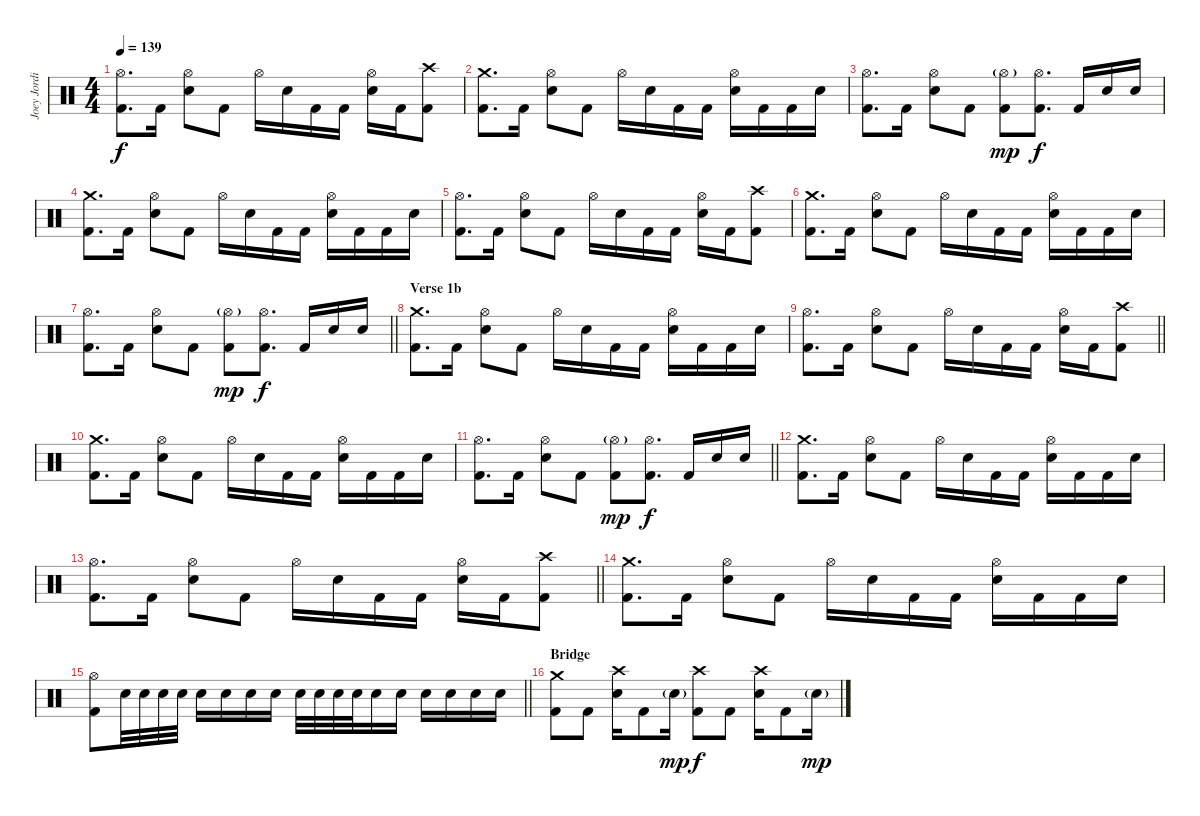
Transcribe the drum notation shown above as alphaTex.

\track ("Joey Jordison" "Joey Jordi") {instrument percussion}
\staff {score}
\articulation defaults
\ts (4 4)
\tempo 139
\clef neutral
\ks c
("Hi-Hat (open)" "Kick (hit) 2").8{d dy f} "Kick (hit) 2".16 ("Hi-Hat (open)" "Electric Snare (hit)").8 "Kick (hit) 2".8 "Hi-Hat (open)".16 "Electric Snare (hit)".16 "Kick (hit) 2".16 "Kick (hit) 2".16 ("Hi-Hat (open)" "Electric Snare (hit)").16 "Kick (hit) 2".16 ("Crash high (hit)" "Kick (hit) 2").8 |
("Crash medium (hit)" "Kick (hit) 2").8{d} "Kick (hit) 2".16 ("Hi-Hat (open)" "Electric Snare (hit)").8 "Kick (hit) 2".8 "Hi-Hat (open)".16 "Electric Snare (hit)".16 "Kick (hit) 2".16 "Kick (hit) 2".16 ("Hi-Hat (open)" "Electric Snare (hit)").16 "Kick (hit) 2".16 "Kick (hit) 2".16 "Electric Snare (hit)".16 |
("Hi-Hat (open)" "Kick (hit) 2").8{d} "Kick (hit) 2".16 ("Hi-Hat (open)" "Electric Snare (hit)").8 "Kick (hit) 2".8 ("Hi-Hat (open)"{g} "Kick (hit) 2").8{dy mp} ("Hi-Hat (open)" "Kick (hit) 2").8{d dy f} "Kick (hit) 2".16 "Electric Snare (hit)".16 "Electric Snare (hit)".16 |
("Crash medium (hit)" "Kick (hit) 2").8{d} "Kick (hit) 2".16 ("Hi-Hat (open)" "Electric Snare (hit)").8 "Kick (hit) 2".8 "Hi-Hat (open)".16 "Electric Snare (hit)".16 "Kick (hit) 2".16 "Kick (hit) 2".16 ("Hi-Hat (open)" "Electric Snare (hit)").16 "Kick (hit) 2".16 "Kick (hit) 2".16 "Electric Snare (hit)".16 |
("Hi-Hat (open)" "Kick (hit) 2").8{d} "Kick (hit) 2".16 ("Hi-Hat (open)" "Electric Snare (hit)").8 "Kick (hit) 2".8 "Hi-Hat (open)".16 "Electric Snare (hit)".16 "Kick (hit) 2".16 "Kick (hit) 2".16 ("Hi-Hat (open)" "Electric Snare (hit)").16 "Kick (hit) 2".16 ("Crash high (hit)" "Kick (hit) 2").8 |
("Crash medium (hit)" "Kick (hit) 2").8{d} "Kick (hit) 2".16 ("Hi-Hat (open)" "Electric Snare (hit)").8 "Kick (hit) 2".8 "Hi-Hat (open)".16 "Electric Snare (hit)".16 "Kick (hit) 2".16 "Kick (hit) 2".16 ("Hi-Hat (open)" "Electric Snare (hit)").16 "Kick (hit) 2".16 "Kick (hit) 2".16 "Electric Snare (hit)".16 |
\barLineRight lightlight
("Hi-Hat (open)" "Kick (hit) 2").8{d} "Kick (hit) 2".16 ("Hi-Hat (open)" "Electric Snare (hit)").8 "Kick (hit) 2".8 ("Hi-Hat (open)"{g} "Kick (hit) 2").8{dy mp} ("Hi-Hat (open)" "Kick (hit) 2").8{d dy f} "Kick (hit) 2".16 "Electric Snare (hit)".16 "Electric Snare (hit)".16 |
\section ("" "Verse 1b")
("Crash medium (hit)" "Kick (hit) 2").8{d} "Kick (hit) 2".16 ("Hi-Hat (open)" "Electric Snare (hit)").8 "Kick (hit) 2".8 "Hi-Hat (open)".16 "Electric Snare (hit)".16 "Kick (hit) 2".16 "Kick (hit) 2".16 ("Hi-Hat (open)" "Electric Snare (hit)").16 "Kick (hit) 2".16 "Kick (hit) 2".16 "Electric Snare (hit)".16 |
\barLineRight lightlight
("Hi-Hat (open)" "Kick (hit) 2").8{d} "Kick (hit) 2".16 ("Hi-Hat (open)" "Electric Snare (hit)").8 "Kick (hit) 2".8 "Hi-Hat (open)".16 "Electric Snare (hit)".16 "Kick (hit) 2".16 "Kick (hit) 2".16 ("Hi-Hat (open)" "Electric Snare (hit)").16 "Kick (hit) 2".16 ("Crash high (hit)" "Kick (hit) 2").8 |
("Crash medium (hit)" "Kick (hit) 2").8{d} "Kick (hit) 2".16 ("Hi-Hat (open)" "Electric Snare (hit)").8 "Kick (hit) 2".8 "Hi-Hat (open)".16 "Electric Snare (hit)".16 "Kick (hit) 2".16 "Kick (hit) 2".16 ("Hi-Hat (open)" "Electric Snare (hit)").16 "Kick (hit) 2".16 "Kick (hit) 2".16 "Electric Snare (hit)".16 |
\barLineRight lightlight
("Hi-Hat (open)" "Kick (hit) 2").8{d} "Kick (hit) 2".16 ("Hi-Hat (open)" "Electric Snare (hit)").8 "Kick (hit) 2".8 ("Hi-Hat (open)"{g} "Kick (hit) 2").8{dy mp} ("Hi-Hat (open)" "Kick (hit) 2").8{d dy f} "Kick (hit) 2".16 "Electric Snare (hit)".16 "Electric Snare (hit)".16 |
("Crash medium (hit)" "Kick (hit) 2").8{d} "Kick (hit) 2".16 ("Hi-Hat (open)" "Electric Snare (hit)").8 "Kick (hit) 2".8 "Hi-Hat (open)".16 "Electric Snare (hit)".16 "Kick (hit) 2".16 "Kick (hit) 2".16 ("Hi-Hat (open)" "Electric Snare (hit)").16 "Kick (hit) 2".16 "Kick (hit) 2".16 "Electric Snare (hit)".16 |
\barLineRight lightlight
("Hi-Hat (open)" "Kick (hit) 2").8{d} "Kick (hit) 2".16 ("Hi-Hat (open)" "Electric Snare (hit)").8 "Kick (hit) 2".8 "Hi-Hat (open)".16 "Electric Snare (hit)".16 "Kick (hit) 2".16 "Kick (hit) 2".16 ("Hi-Hat (open)" "Electric Snare (hit)").16 "Kick (hit) 2".16 ("Crash high (hit)" "Kick (hit) 2").8 |
("Crash medium (hit)" "Kick (hit) 2").8{d} "Kick (hit) 2".16 ("Hi-Hat (open)" "Electric Snare (hit)").8 "Kick (hit) 2".8 "Hi-Hat (open)".16 "Electric Snare (hit)".16 "Kick (hit) 2".16 "Kick (hit) 2".16 ("Hi-Hat (open)" "Electric Snare (hit)").16 "Kick (hit) 2".16 "Kick (hit) 2".16 "Electric Snare (hit)".16 |
\barLineRight lightlight
("Hi-Hat (open)" "Kick (hit) 2").8 "Electric Snare (hit)".32 "Electric Snare (hit)".32 "Electric Snare (hit)".32 "Electric Snare (hit)".32 "Electric Snare (hit)".16 "Electric Snare (hit)".16 "Electric Snare (hit)".16 "Electric Snare (hit)".16 "Electric Snare (hit)".32 "Electric Snare (hit)".32 "Electric Snare (hit)".32 "Electric Snare (hit)".32 "Electric Snare (hit)".16 "Electric Snare (hit)".16 "Electric Snare (hit)".16 "Electric Snare (hit)".16 "Electric Snare (hit)".16 "Electric Snare (hit)".16 |
\section ("" "Bridge")
("Crash medium (hit)" "Kick (hit) 2").8 "Kick (hit) 2".8 ("Crash high (hit)" "Electric Snare (hit)").16 "Kick (hit) 2".8 "Electric Snare (hit)"{g}.16{dy mp} ("Crash high (hit)" "Kick (hit) 2").8{dy f} "Kick (hit) 2".8 ("Crash high (hit)" "Electric Snare (hit)").16 "Kick (hit) 2".8 "Electric Snare (hit)"{g}.16{dy mp}
